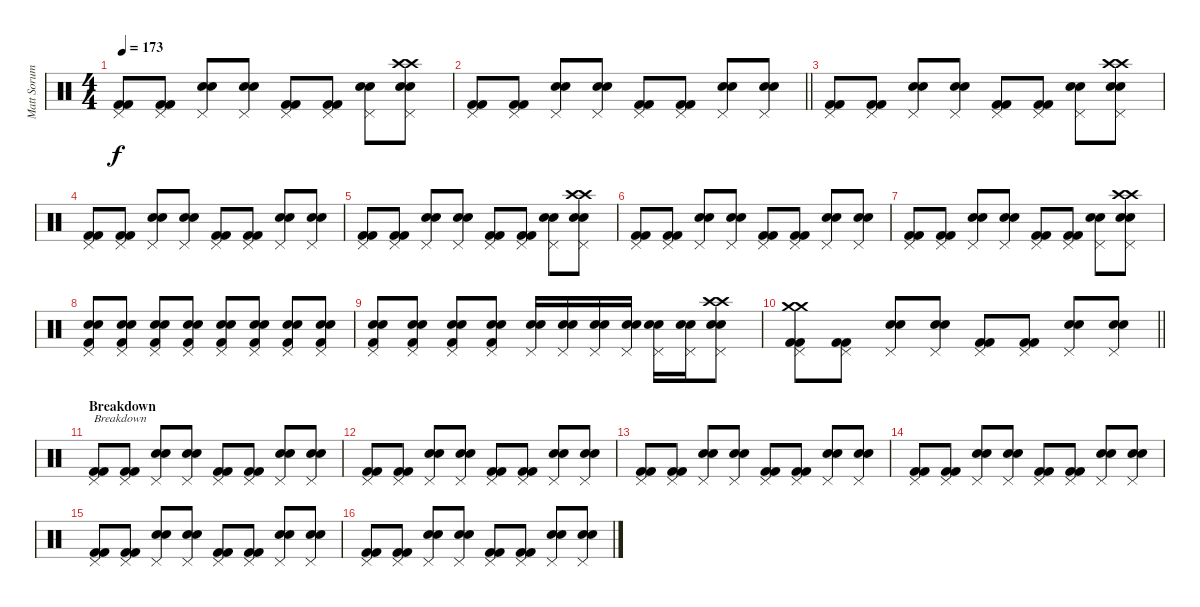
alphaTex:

\track ("Matt Sorum" "Matt Sorum") {instrument percussion}
\staff {score}
\articulation defaults
\ts (4 4)
\tempo 173
\clef neutral
\ks c
("Pedal Hi-Hat (hit)" "Kick (hit) 2" "Kick (hit) 2").8{dy f} ("Pedal Hi-Hat (hit)" "Kick (hit) 2" "Kick (hit) 2").8 ("Pedal Hi-Hat (hit)" "Snare (hit) 2" "Snare (hit) 2").8 ("Pedal Hi-Hat (hit)" "Snare (hit) 2" "Snare (hit) 2").8 ("Pedal Hi-Hat (hit)" "Kick (hit) 2" "Kick (hit) 2").8 ("Pedal Hi-Hat (hit)" "Kick (hit) 2" "Kick (hit) 2").8 ("Pedal Hi-Hat (hit)" "Snare (hit) 2" "Snare (hit) 2").8 ("Crash high (hit)" "Crash high (hit)" "Pedal Hi-Hat (hit)" "Snare (hit) 2" "Snare (hit) 2").8 |
\barLineRight lightlight
("Pedal Hi-Hat (hit)" "Kick (hit) 2" "Kick (hit) 2").8 ("Pedal Hi-Hat (hit)" "Kick (hit) 2" "Kick (hit) 2").8 ("Pedal Hi-Hat (hit)" "Snare (hit) 2" "Snare (hit) 2").8 ("Pedal Hi-Hat (hit)" "Snare (hit) 2" "Snare (hit) 2").8 ("Pedal Hi-Hat (hit)" "Kick (hit) 2" "Kick (hit) 2").8 ("Pedal Hi-Hat (hit)" "Kick (hit) 2" "Kick (hit) 2").8 ("Pedal Hi-Hat (hit)" "Snare (hit) 2" "Snare (hit) 2").8 ("Pedal Hi-Hat (hit)" "Snare (hit) 2" "Snare (hit) 2").8 |
("Pedal Hi-Hat (hit)" "Kick (hit) 2" "Kick (hit) 2").8 ("Pedal Hi-Hat (hit)" "Kick (hit) 2" "Kick (hit) 2").8 ("Pedal Hi-Hat (hit)" "Snare (hit) 2" "Snare (hit) 2").8 ("Pedal Hi-Hat (hit)" "Snare (hit) 2" "Snare (hit) 2").8 ("Pedal Hi-Hat (hit)" "Kick (hit) 2" "Kick (hit) 2").8 ("Pedal Hi-Hat (hit)" "Kick (hit) 2" "Kick (hit) 2").8 ("Pedal Hi-Hat (hit)" "Snare (hit) 2" "Snare (hit) 2").8 ("Crash high (hit)" "Crash high (hit)" "Pedal Hi-Hat (hit)" "Snare (hit) 2" "Snare (hit) 2").8 |
("Pedal Hi-Hat (hit)" "Kick (hit) 2" "Kick (hit) 2").8 ("Pedal Hi-Hat (hit)" "Kick (hit) 2" "Kick (hit) 2").8 ("Pedal Hi-Hat (hit)" "Snare (hit) 2" "Snare (hit) 2").8 ("Pedal Hi-Hat (hit)" "Snare (hit) 2" "Snare (hit) 2").8 ("Pedal Hi-Hat (hit)" "Kick (hit) 2" "Kick (hit) 2").8 ("Pedal Hi-Hat (hit)" "Kick (hit) 2" "Kick (hit) 2").8 ("Pedal Hi-Hat (hit)" "Snare (hit) 2" "Snare (hit) 2").8 ("Pedal Hi-Hat (hit)" "Snare (hit) 2" "Snare (hit) 2").8 |
("Pedal Hi-Hat (hit)" "Kick (hit) 2" "Kick (hit) 2").8 ("Pedal Hi-Hat (hit)" "Kick (hit) 2" "Kick (hit) 2").8 ("Pedal Hi-Hat (hit)" "Snare (hit) 2" "Snare (hit) 2").8 ("Pedal Hi-Hat (hit)" "Snare (hit) 2" "Snare (hit) 2").8 ("Pedal Hi-Hat (hit)" "Kick (hit) 2" "Kick (hit) 2").8 ("Pedal Hi-Hat (hit)" "Kick (hit) 2" "Kick (hit) 2").8 ("Pedal Hi-Hat (hit)" "Snare (hit) 2" "Snare (hit) 2").8 ("Crash high (hit)" "Crash high (hit)" "Pedal Hi-Hat (hit)" "Snare (hit) 2" "Snare (hit) 2").8 |
("Pedal Hi-Hat (hit)" "Kick (hit) 2" "Kick (hit) 2").8 ("Pedal Hi-Hat (hit)" "Kick (hit) 2" "Kick (hit) 2").8 ("Pedal Hi-Hat (hit)" "Snare (hit) 2" "Snare (hit) 2").8 ("Pedal Hi-Hat (hit)" "Snare (hit) 2" "Snare (hit) 2").8 ("Pedal Hi-Hat (hit)" "Kick (hit) 2" "Kick (hit) 2").8 ("Pedal Hi-Hat (hit)" "Kick (hit) 2" "Kick (hit) 2").8 ("Pedal Hi-Hat (hit)" "Snare (hit) 2" "Snare (hit) 2").8 ("Pedal Hi-Hat (hit)" "Snare (hit) 2" "Snare (hit) 2").8 |
("Pedal Hi-Hat (hit)" "Kick (hit) 2" "Kick (hit) 2").8 ("Pedal Hi-Hat (hit)" "Kick (hit) 2" "Kick (hit) 2").8 ("Pedal Hi-Hat (hit)" "Snare (hit) 2" "Snare (hit) 2").8 ("Pedal Hi-Hat (hit)" "Snare (hit) 2" "Snare (hit) 2").8 ("Pedal Hi-Hat (hit)" "Kick (hit) 2" "Kick (hit) 2").8 ("Pedal Hi-Hat (hit)" "Kick (hit) 2" "Kick (hit) 2").8 ("Pedal Hi-Hat (hit)" "Snare (hit) 2" "Snare (hit) 2").8 ("Crash high (hit)" "Crash high (hit)" "Pedal Hi-Hat (hit)" "Snare (hit) 2" "Snare (hit) 2").8 |
("Pedal Hi-Hat (hit)" "Snare (hit) 2" "Snare (hit) 2" "Kick (hit) 2").8 ("Pedal Hi-Hat (hit)" "Snare (hit) 2" "Snare (hit) 2" "Kick (hit) 2").8 ("Pedal Hi-Hat (hit)" "Snare (hit) 2" "Snare (hit) 2" "Kick (hit) 2").8 ("Pedal Hi-Hat (hit)" "Snare (hit) 2" "Snare (hit) 2" "Kick (hit) 2").8 ("Pedal Hi-Hat (hit)" "Snare (hit) 2" "Snare (hit) 2" "Kick (hit) 2").8 ("Pedal Hi-Hat (hit)" "Snare (hit) 2" "Snare (hit) 2" "Kick (hit) 2").8 ("Pedal Hi-Hat (hit)" "Snare (hit) 2" "Snare (hit) 2" "Kick (hit) 2").8 ("Pedal Hi-Hat (hit)" "Snare (hit) 2" "Snare (hit) 2" "Kick (hit) 2").8 |
("Pedal Hi-Hat (hit)" "Snare (hit) 2" "Snare (hit) 2" "Kick (hit) 2").8 ("Pedal Hi-Hat (hit)" "Snare (hit) 2" "Snare (hit) 2" "Kick (hit) 2").8 ("Pedal Hi-Hat (hit)" "Snare (hit) 2" "Snare (hit) 2" "Kick (hit) 2").8 ("Pedal Hi-Hat (hit)" "Snare (hit) 2" "Snare (hit) 2" "Kick (hit) 2").8 ("Pedal Hi-Hat (hit)" "Snare (hit) 2" "Snare (hit) 2").16 ("Pedal Hi-Hat (hit)" "Snare (hit) 2" "Snare (hit) 2").16 ("Pedal Hi-Hat (hit)" "Snare (hit) 2" "Snare (hit) 2").16 ("Pedal Hi-Hat (hit)" "Snare (hit) 2" "Snare (hit) 2").16 ("Pedal Hi-Hat (hit)" "Snare (hit) 2" "Snare (hit) 2").16 ("Pedal Hi-Hat (hit)" "Snare (hit) 2" "Snare (hit) 2").16 ("Crash high (hit)" "Crash high (hit)" "Pedal Hi-Hat (hit)" "Snare (hit) 2" "Snare (hit) 2").8 |
\barLineRight lightlight
("Crash medium (hit)" "Crash medium (hit)" "Pedal Hi-Hat (hit)" "Kick (hit) 2" "Kick (hit) 2").8 ("Pedal Hi-Hat (hit)" "Kick (hit) 2" "Kick (hit) 2").8 ("Pedal Hi-Hat (hit)" "Snare (hit) 2" "Snare (hit) 2").8 ("Pedal Hi-Hat (hit)" "Snare (hit) 2" "Snare (hit) 2").8 ("Pedal Hi-Hat (hit)" "Kick (hit) 2" "Kick (hit) 2").8 ("Pedal Hi-Hat (hit)" "Kick (hit) 2" "Kick (hit) 2").8 ("Pedal Hi-Hat (hit)" "Snare (hit) 2" "Snare (hit) 2").8 ("Pedal Hi-Hat (hit)" "Snare (hit) 2" "Snare (hit) 2").8 |
\section ("" "Breakdown")
("Pedal Hi-Hat (hit)" "Kick (hit) 2" "Kick (hit) 2").8{txt "Breakdown"} ("Pedal Hi-Hat (hit)" "Kick (hit) 2" "Kick (hit) 2").8 ("Pedal Hi-Hat (hit)" "Snare (hit) 2" "Snare (hit) 2").8 ("Pedal Hi-Hat (hit)" "Snare (hit) 2" "Snare (hit) 2").8 ("Pedal Hi-Hat (hit)" "Kick (hit) 2" "Kick (hit) 2").8 ("Pedal Hi-Hat (hit)" "Kick (hit) 2" "Kick (hit) 2").8 ("Pedal Hi-Hat (hit)" "Snare (hit) 2" "Snare (hit) 2").8 ("Pedal Hi-Hat (hit)" "Snare (hit) 2" "Snare (hit) 2").8 |
("Pedal Hi-Hat (hit)" "Kick (hit) 2" "Kick (hit) 2").8 ("Pedal Hi-Hat (hit)" "Kick (hit) 2" "Kick (hit) 2").8 ("Pedal Hi-Hat (hit)" "Snare (hit) 2" "Snare (hit) 2").8 ("Pedal Hi-Hat (hit)" "Snare (hit) 2" "Snare (hit) 2").8 ("Pedal Hi-Hat (hit)" "Kick (hit) 2" "Kick (hit) 2").8 ("Pedal Hi-Hat (hit)" "Kick (hit) 2" "Kick (hit) 2").8 ("Pedal Hi-Hat (hit)" "Snare (hit) 2" "Snare (hit) 2").8 ("Pedal Hi-Hat (hit)" "Snare (hit) 2" "Snare (hit) 2").8 |
("Pedal Hi-Hat (hit)" "Kick (hit) 2" "Kick (hit) 2").8 ("Pedal Hi-Hat (hit)" "Kick (hit) 2" "Kick (hit) 2").8 ("Pedal Hi-Hat (hit)" "Snare (hit) 2" "Snare (hit) 2").8 ("Pedal Hi-Hat (hit)" "Snare (hit) 2" "Snare (hit) 2").8 ("Pedal Hi-Hat (hit)" "Kick (hit) 2" "Kick (hit) 2").8 ("Pedal Hi-Hat (hit)" "Kick (hit) 2" "Kick (hit) 2").8 ("Pedal Hi-Hat (hit)" "Snare (hit) 2" "Snare (hit) 2").8 ("Pedal Hi-Hat (hit)" "Snare (hit) 2" "Snare (hit) 2").8 |
("Pedal Hi-Hat (hit)" "Kick (hit) 2" "Kick (hit) 2").8 ("Pedal Hi-Hat (hit)" "Kick (hit) 2" "Kick (hit) 2").8 ("Pedal Hi-Hat (hit)" "Snare (hit) 2" "Snare (hit) 2").8 ("Pedal Hi-Hat (hit)" "Snare (hit) 2" "Snare (hit) 2").8 ("Pedal Hi-Hat (hit)" "Kick (hit) 2" "Kick (hit) 2").8 ("Pedal Hi-Hat (hit)" "Kick (hit) 2" "Kick (hit) 2").8 ("Pedal Hi-Hat (hit)" "Snare (hit) 2" "Snare (hit) 2").8 ("Pedal Hi-Hat (hit)" "Snare (hit) 2" "Snare (hit) 2").8 |
("Pedal Hi-Hat (hit)" "Kick (hit) 2" "Kick (hit) 2").8 ("Pedal Hi-Hat (hit)" "Kick (hit) 2" "Kick (hit) 2").8 ("Pedal Hi-Hat (hit)" "Snare (hit) 2" "Snare (hit) 2").8 ("Pedal Hi-Hat (hit)" "Snare (hit) 2" "Snare (hit) 2").8 ("Pedal Hi-Hat (hit)" "Kick (hit) 2" "Kick (hit) 2").8 ("Pedal Hi-Hat (hit)" "Kick (hit) 2" "Kick (hit) 2").8 ("Pedal Hi-Hat (hit)" "Snare (hit) 2" "Snare (hit) 2").8 ("Pedal Hi-Hat (hit)" "Snare (hit) 2" "Snare (hit) 2").8 |
("Pedal Hi-Hat (hit)" "Kick (hit) 2" "Kick (hit) 2").8 ("Pedal Hi-Hat (hit)" "Kick (hit) 2" "Kick (hit) 2").8 ("Pedal Hi-Hat (hit)" "Snare (hit) 2" "Snare (hit) 2").8 ("Pedal Hi-Hat (hit)" "Snare (hit) 2" "Snare (hit) 2").8 ("Pedal Hi-Hat (hit)" "Kick (hit) 2" "Kick (hit) 2").8 ("Pedal Hi-Hat (hit)" "Kick (hit) 2" "Kick (hit) 2").8 ("Pedal Hi-Hat (hit)" "Snare (hit) 2" "Snare (hit) 2").8 ("Pedal Hi-Hat (hit)" "Snare (hit) 2" "Snare (hit) 2").8
